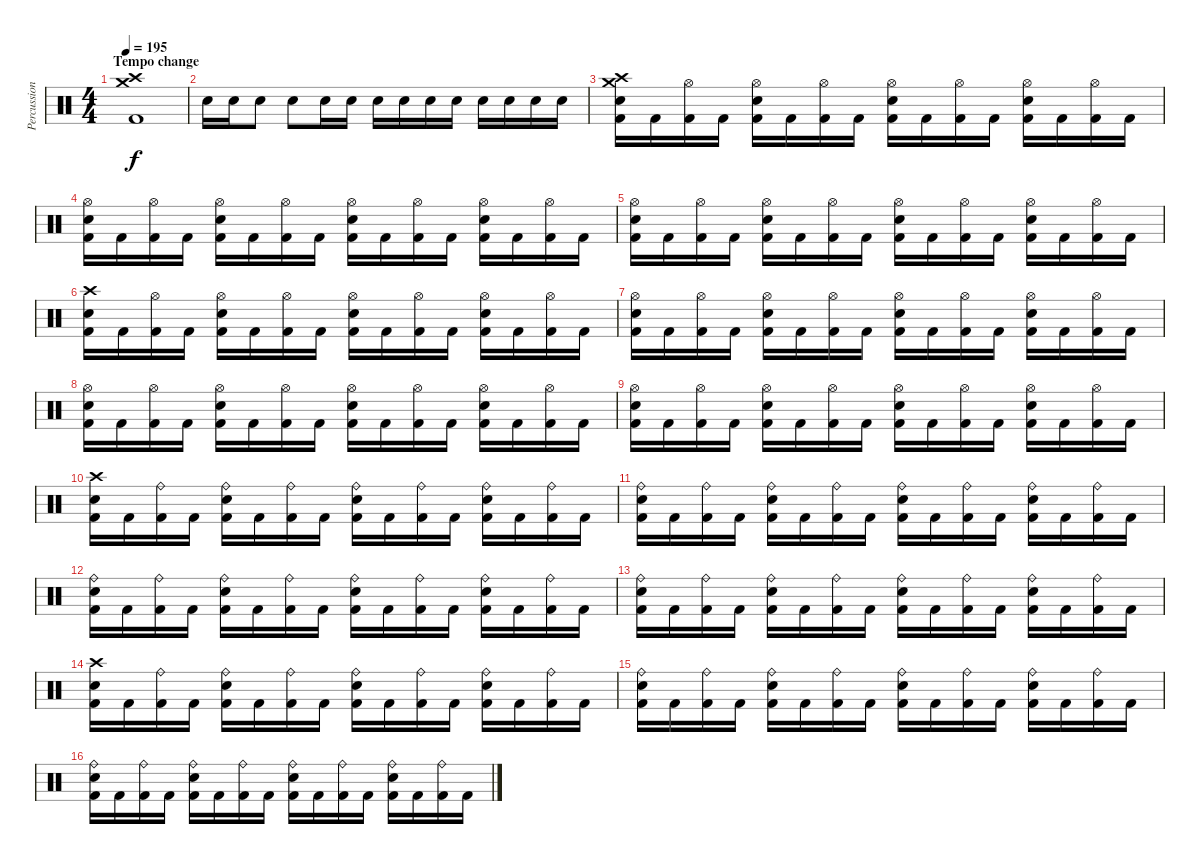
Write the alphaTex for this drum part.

\track ("Percussion" "Percussion") {instrument percussion}
\staff {score}
\articulation defaults
\ts (4 4)
\section ("" "Tempo change")
\tempo 195
\clef neutral
\ks c
("Crash high (hit)" "Crash medium (hit)" "Kick (hit) 2").1{dy f} |
"Electric Snare (hit)".16 "Electric Snare (hit)".16 "Electric Snare (hit)".8 "Electric Snare (hit)".8 "Electric Snare (hit)".16 "Electric Snare (hit)".16 "Electric Snare (hit)".16 "Electric Snare (hit)".16 "Electric Snare (hit)".16 "Electric Snare (hit)".16 "Electric Snare (hit)".16 "Electric Snare (hit)".16 "Electric Snare (hit)".16 "Electric Snare (hit)".16 |
("Crash high (hit)" "Crash medium (hit)" "Electric Snare (hit)" "Kick (hit) 2").16 "Kick (hit) 2".16 ("Hi-Hat (open)" "Kick (hit) 2").16 "Kick (hit) 2".16 ("Hi-Hat (open)" "Electric Snare (hit)" "Kick (hit) 2").16 "Kick (hit) 2".16 ("Hi-Hat (open)" "Kick (hit) 2").16 "Kick (hit) 2".16 ("Hi-Hat (open)" "Electric Snare (hit)" "Kick (hit) 2").16 "Kick (hit) 2".16 ("Hi-Hat (open)" "Kick (hit) 2").16 "Kick (hit) 2".16 ("Hi-Hat (open)" "Electric Snare (hit)" "Kick (hit) 2").16 "Kick (hit) 2".16 ("Hi-Hat (open)" "Kick (hit) 2").16 "Kick (hit) 2".16 |
("Hi-Hat (open)" "Electric Snare (hit)" "Kick (hit) 2").16 "Kick (hit) 2".16 ("Hi-Hat (open)" "Kick (hit) 2").16 "Kick (hit) 2".16 ("Hi-Hat (open)" "Electric Snare (hit)" "Kick (hit) 2").16 "Kick (hit) 2".16 ("Hi-Hat (open)" "Kick (hit) 2").16 "Kick (hit) 2".16 ("Hi-Hat (open)" "Electric Snare (hit)" "Kick (hit) 2").16 "Kick (hit) 2".16 ("Hi-Hat (open)" "Kick (hit) 2").16 "Kick (hit) 2".16 ("Hi-Hat (open)" "Electric Snare (hit)" "Kick (hit) 2").16 "Kick (hit) 2".16 ("Hi-Hat (open)" "Kick (hit) 2").16 "Kick (hit) 2".16 |
("Hi-Hat (open)" "Electric Snare (hit)" "Kick (hit) 2").16 "Kick (hit) 2".16 ("Hi-Hat (open)" "Kick (hit) 2").16 "Kick (hit) 2".16 ("Hi-Hat (open)" "Electric Snare (hit)" "Kick (hit) 2").16 "Kick (hit) 2".16 ("Hi-Hat (open)" "Kick (hit) 2").16 "Kick (hit) 2".16 ("Hi-Hat (open)" "Electric Snare (hit)" "Kick (hit) 2").16 "Kick (hit) 2".16 ("Hi-Hat (open)" "Kick (hit) 2").16 "Kick (hit) 2".16 ("Hi-Hat (open)" "Electric Snare (hit)" "Kick (hit) 2").16 "Kick (hit) 2".16 ("Hi-Hat (open)" "Kick (hit) 2").16 "Kick (hit) 2".16 |
("Crash high (hit)" "Electric Snare (hit)" "Kick (hit) 2").16 "Kick (hit) 2".16 ("Hi-Hat (open)" "Kick (hit) 2").16 "Kick (hit) 2".16 ("Hi-Hat (open)" "Electric Snare (hit)" "Kick (hit) 2").16 "Kick (hit) 2".16 ("Hi-Hat (open)" "Kick (hit) 2").16 "Kick (hit) 2".16 ("Hi-Hat (open)" "Electric Snare (hit)" "Kick (hit) 2").16 "Kick (hit) 2".16 ("Hi-Hat (open)" "Kick (hit) 2").16 "Kick (hit) 2".16 ("Hi-Hat (open)" "Electric Snare (hit)" "Kick (hit) 2").16 "Kick (hit) 2".16 ("Hi-Hat (open)" "Kick (hit) 2").16 "Kick (hit) 2".16 |
("Hi-Hat (open)" "Electric Snare (hit)" "Kick (hit) 2").16 "Kick (hit) 2".16 ("Hi-Hat (open)" "Kick (hit) 2").16 "Kick (hit) 2".16 ("Hi-Hat (open)" "Electric Snare (hit)" "Kick (hit) 2").16 "Kick (hit) 2".16 ("Hi-Hat (open)" "Kick (hit) 2").16 "Kick (hit) 2".16 ("Hi-Hat (open)" "Electric Snare (hit)" "Kick (hit) 2").16 "Kick (hit) 2".16 ("Hi-Hat (open)" "Kick (hit) 2").16 "Kick (hit) 2".16 ("Hi-Hat (open)" "Electric Snare (hit)" "Kick (hit) 2").16 "Kick (hit) 2".16 ("Hi-Hat (open)" "Kick (hit) 2").16 "Kick (hit) 2".16 |
("Hi-Hat (open)" "Electric Snare (hit)" "Kick (hit) 2").16 "Kick (hit) 2".16 ("Hi-Hat (open)" "Kick (hit) 2").16 "Kick (hit) 2".16 ("Hi-Hat (open)" "Electric Snare (hit)" "Kick (hit) 2").16 "Kick (hit) 2".16 ("Hi-Hat (open)" "Kick (hit) 2").16 "Kick (hit) 2".16 ("Hi-Hat (open)" "Electric Snare (hit)" "Kick (hit) 2").16 "Kick (hit) 2".16 ("Hi-Hat (open)" "Kick (hit) 2").16 "Kick (hit) 2".16 ("Hi-Hat (open)" "Electric Snare (hit)" "Kick (hit) 2").16 "Kick (hit) 2".16 ("Hi-Hat (open)" "Kick (hit) 2").16 "Kick (hit) 2".16 |
("Hi-Hat (open)" "Electric Snare (hit)" "Kick (hit) 2").16 "Kick (hit) 2".16 ("Hi-Hat (open)" "Kick (hit) 2").16 "Kick (hit) 2".16 ("Hi-Hat (open)" "Electric Snare (hit)" "Kick (hit) 2").16 "Kick (hit) 2".16 ("Hi-Hat (open)" "Kick (hit) 2").16 "Kick (hit) 2".16 ("Hi-Hat (open)" "Electric Snare (hit)" "Kick (hit) 2").16 "Kick (hit) 2".16 ("Hi-Hat (open)" "Kick (hit) 2").16 "Kick (hit) 2".16 ("Hi-Hat (open)" "Electric Snare (hit)" "Kick (hit) 2").16 "Kick (hit) 2".16 ("Hi-Hat (open)" "Kick (hit) 2").16 "Kick (hit) 2".16 |
("Crash high (hit)" "Electric Snare (hit)" "Kick (hit) 2").16 "Kick (hit) 2".16 ("Ride (bell)" "Kick (hit) 2").16 "Kick (hit) 2".16 ("Ride (bell)" "Electric Snare (hit)" "Kick (hit) 2").16 "Kick (hit) 2".16 ("Ride (bell)" "Kick (hit) 2").16 "Kick (hit) 2".16 ("Ride (bell)" "Electric Snare (hit)" "Kick (hit) 2").16 "Kick (hit) 2".16 ("Ride (bell)" "Kick (hit) 2").16 "Kick (hit) 2".16 ("Ride (bell)" "Electric Snare (hit)" "Kick (hit) 2").16 "Kick (hit) 2".16 ("Ride (bell)" "Kick (hit) 2").16 "Kick (hit) 2".16 |
("Ride (bell)" "Electric Snare (hit)" "Kick (hit) 2").16 "Kick (hit) 2".16 ("Ride (bell)" "Kick (hit) 2").16 "Kick (hit) 2".16 ("Ride (bell)" "Electric Snare (hit)" "Kick (hit) 2").16 "Kick (hit) 2".16 ("Ride (bell)" "Kick (hit) 2").16 "Kick (hit) 2".16 ("Ride (bell)" "Electric Snare (hit)" "Kick (hit) 2").16 "Kick (hit) 2".16 ("Ride (bell)" "Kick (hit) 2").16 "Kick (hit) 2".16 ("Ride (bell)" "Electric Snare (hit)" "Kick (hit) 2").16 "Kick (hit) 2".16 ("Ride (bell)" "Kick (hit) 2").16 "Kick (hit) 2".16 |
("Ride (bell)" "Electric Snare (hit)" "Kick (hit) 2").16 "Kick (hit) 2".16 ("Ride (bell)" "Kick (hit) 2").16 "Kick (hit) 2".16 ("Ride (bell)" "Electric Snare (hit)" "Kick (hit) 2").16 "Kick (hit) 2".16 ("Ride (bell)" "Kick (hit) 2").16 "Kick (hit) 2".16 ("Ride (bell)" "Electric Snare (hit)" "Kick (hit) 2").16 "Kick (hit) 2".16 ("Ride (bell)" "Kick (hit) 2").16 "Kick (hit) 2".16 ("Ride (bell)" "Electric Snare (hit)" "Kick (hit) 2").16 "Kick (hit) 2".16 ("Ride (bell)" "Kick (hit) 2").16 "Kick (hit) 2".16 |
("Ride (bell)" "Electric Snare (hit)" "Kick (hit) 2").16 "Kick (hit) 2".16 ("Ride (bell)" "Kick (hit) 2").16 "Kick (hit) 2".16 ("Ride (bell)" "Electric Snare (hit)" "Kick (hit) 2").16 "Kick (hit) 2".16 ("Ride (bell)" "Kick (hit) 2").16 "Kick (hit) 2".16 ("Ride (bell)" "Electric Snare (hit)" "Kick (hit) 2").16 "Kick (hit) 2".16 ("Ride (bell)" "Kick (hit) 2").16 "Kick (hit) 2".16 ("Ride (bell)" "Electric Snare (hit)" "Kick (hit) 2").16 "Kick (hit) 2".16 ("Ride (bell)" "Kick (hit) 2").16 "Kick (hit) 2".16 |
("Crash high (hit)" "Electric Snare (hit)" "Kick (hit) 2").16 "Kick (hit) 2".16 ("Ride (bell)" "Kick (hit) 2").16 "Kick (hit) 2".16 ("Ride (bell)" "Electric Snare (hit)" "Kick (hit) 2").16 "Kick (hit) 2".16 ("Ride (bell)" "Kick (hit) 2").16 "Kick (hit) 2".16 ("Ride (bell)" "Electric Snare (hit)" "Kick (hit) 2").16 "Kick (hit) 2".16 ("Ride (bell)" "Kick (hit) 2").16 "Kick (hit) 2".16 ("Ride (bell)" "Electric Snare (hit)" "Kick (hit) 2").16 "Kick (hit) 2".16 ("Ride (bell)" "Kick (hit) 2").16 "Kick (hit) 2".16 |
("Ride (bell)" "Electric Snare (hit)" "Kick (hit) 2").16 "Kick (hit) 2".16 ("Ride (bell)" "Kick (hit) 2").16 "Kick (hit) 2".16 ("Ride (bell)" "Electric Snare (hit)" "Kick (hit) 2").16 "Kick (hit) 2".16 ("Ride (bell)" "Kick (hit) 2").16 "Kick (hit) 2".16 ("Ride (bell)" "Electric Snare (hit)" "Kick (hit) 2").16 "Kick (hit) 2".16 ("Ride (bell)" "Kick (hit) 2").16 "Kick (hit) 2".16 ("Ride (bell)" "Electric Snare (hit)" "Kick (hit) 2").16 "Kick (hit) 2".16 ("Ride (bell)" "Kick (hit) 2").16 "Kick (hit) 2".16 |
("Ride (bell)" "Electric Snare (hit)" "Kick (hit) 2").16 "Kick (hit) 2".16 ("Ride (bell)" "Kick (hit) 2").16 "Kick (hit) 2".16 ("Ride (bell)" "Electric Snare (hit)" "Kick (hit) 2").16 "Kick (hit) 2".16 ("Ride (bell)" "Kick (hit) 2").16 "Kick (hit) 2".16 ("Ride (bell)" "Electric Snare (hit)" "Kick (hit) 2").16 "Kick (hit) 2".16 ("Ride (bell)" "Kick (hit) 2").16 "Kick (hit) 2".16 ("Ride (bell)" "Electric Snare (hit)" "Kick (hit) 2").16 "Kick (hit) 2".16 ("Ride (bell)" "Kick (hit) 2").16 "Kick (hit) 2".16
